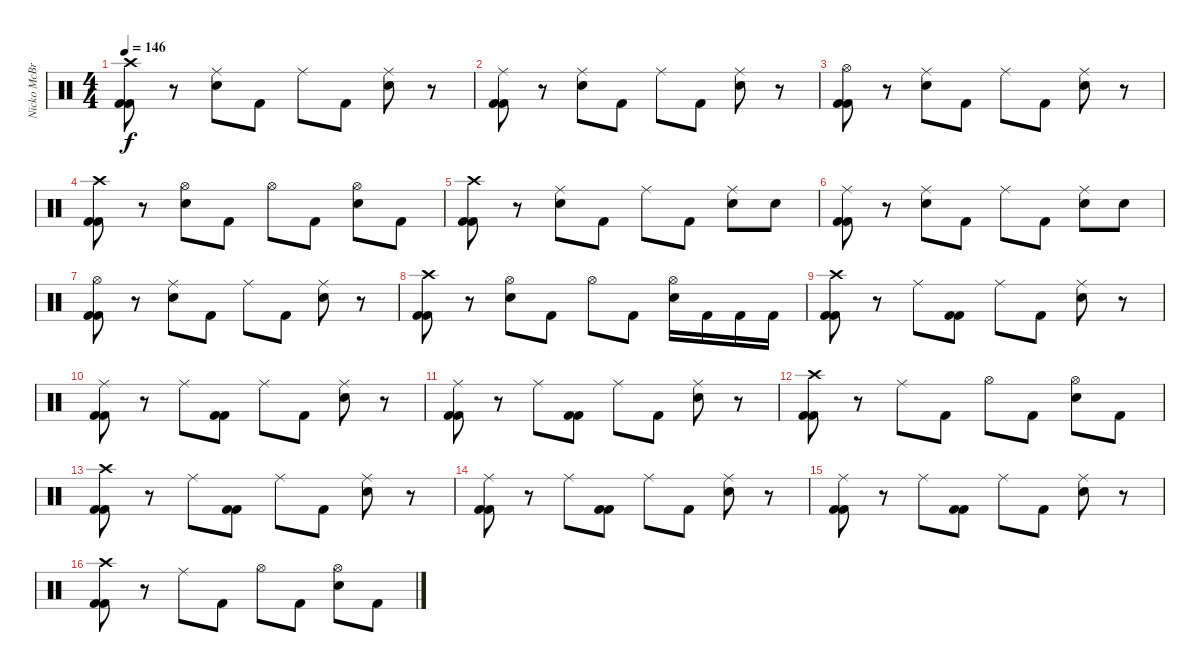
\track ("Nicko McBrain" "Nicko McBr") {instrument percussion}
\staff {score}
\articulation defaults
\ts (4 4)
\tempo 146
\clef neutral
\ks c
("Crash high (hit)" "Kick (hit) 2" "Kick (hit) 2").8{dy f} r.8 ("Ride (middle)" "Snare (hit) 2").8 "Kick (hit) 2".8 "Ride (middle)".8 "Kick (hit) 2".8 ("Ride (middle)" "Snare (hit) 2").8 r.8 |
("Ride (middle)" "Kick (hit) 2" "Kick (hit) 2").8 r.8 ("Ride (middle)" "Snare (hit) 2").8 "Kick (hit) 2".8 "Ride (middle)".8 "Kick (hit) 2".8 ("Ride (middle)" "Snare (hit) 2").8 r.8 |
("Hi-Hat (open)" "Kick (hit) 2" "Kick (hit) 2").8 r.8 ("Ride (middle)" "Snare (hit) 2").8 "Kick (hit) 2".8 "Ride (middle)".8 "Kick (hit) 2".8 ("Ride (middle)" "Snare (hit) 2").8 r.8 |
("Crash high (hit)" "Kick (hit) 2" "Kick (hit) 2").8 r.8 ("Hi-Hat (open)" "Snare (hit) 2").8 "Kick (hit) 2".8 "Hi-Hat (open)".8 "Kick (hit) 2".8 ("Hi-Hat (open)" "Snare (hit) 2").8 "Kick (hit) 2".8 |
("Crash high (hit)" "Kick (hit) 2" "Kick (hit) 2").8 r.8 ("Ride (middle)" "Snare (hit) 2").8 "Kick (hit) 2".8 "Ride (middle)".8 "Kick (hit) 2".8 ("Ride (middle)" "Snare (hit) 2").8 "Snare (hit)".8 |
("Ride (middle)" "Kick (hit) 2" "Kick (hit) 2").8 r.8 ("Ride (middle)" "Snare (hit) 2").8 "Kick (hit) 2".8 "Ride (middle)".8 "Kick (hit) 2".8 ("Ride (middle)" "Snare (hit) 2").8 "Snare (hit) 2".8 |
("Hi-Hat (open)" "Kick (hit) 2" "Kick (hit) 2").8 r.8 ("Ride (middle)" "Snare (hit) 2").8 "Kick (hit) 2".8 "Ride (middle)".8 "Kick (hit) 2".8 ("Ride (middle)" "Snare (hit) 2").8 r.8 |
("Crash high (hit)" "Kick (hit) 2" "Kick (hit) 2").8 r.8 ("Hi-Hat (open)" "Snare (hit) 2").8 "Kick (hit) 2".8 "Hi-Hat (open)".8 "Kick (hit) 2".8 ("Hi-Hat (open)" "Snare (hit) 2").16 "Kick (hit) 2".16 "Kick (hit) 2".16 "Kick (hit) 2".16 |
("Crash high (hit)" "Kick (hit) 2" "Kick (hit) 2").8 r.8 "Ride (middle)".8 ("Kick (hit) 2" "Kick (hit) 2").8 "Ride (middle)".8 "Kick (hit) 2".8 ("Ride (middle)" "Snare (hit) 2").8 r.8 |
("Ride (middle)" "Kick (hit) 2" "Kick (hit) 2").8 r.8 "Ride (middle)".8 ("Kick (hit) 2" "Kick (hit) 2").8 "Ride (middle)".8 "Kick (hit) 2".8 ("Ride (middle)" "Snare (hit) 2").8 r.8 |
("Ride (middle)" "Kick (hit) 2" "Kick (hit) 2").8 r.8 "Ride (middle)".8 ("Kick (hit) 2" "Kick (hit) 2").8 "Ride (middle)".8 "Kick (hit) 2".8 ("Ride (middle)" "Snare (hit) 2").8 r.8 |
("Crash high (hit)" "Kick (hit) 2" "Kick (hit) 2").8 r.8 "Ride (middle)".8 "Kick (hit) 2".8 "Hi-Hat (open)".8 "Kick (hit) 2".8 ("Hi-Hat (open)" "Snare (hit) 2").8 "Kick (hit) 2".8 |
("Crash high (hit)" "Kick (hit) 2" "Kick (hit) 2").8 r.8 "Ride (middle)".8 ("Kick (hit) 2" "Kick (hit) 2").8 "Ride (middle)".8 "Kick (hit) 2".8 ("Ride (middle)" "Snare (hit) 2").8 r.8 |
("Ride (middle)" "Kick (hit) 2" "Kick (hit) 2").8 r.8 "Ride (middle)".8 ("Kick (hit) 2" "Kick (hit) 2").8 "Ride (middle)".8 "Kick (hit) 2".8 ("Ride (middle)" "Snare (hit) 2").8 r.8 |
("Ride (middle)" "Kick (hit) 2" "Kick (hit) 2").8 r.8 "Ride (middle)".8 ("Kick (hit) 2" "Kick (hit) 2").8 "Ride (middle)".8 "Kick (hit) 2".8 ("Ride (middle)" "Snare (hit) 2").8 r.8 |
("Crash high (hit)" "Kick (hit) 2" "Kick (hit) 2").8 r.8 "Ride (middle)".8 "Kick (hit) 2".8 "Hi-Hat (open)".8 "Kick (hit) 2".8 ("Hi-Hat (open)" "Snare (hit) 2").8 "Kick (hit) 2".8
